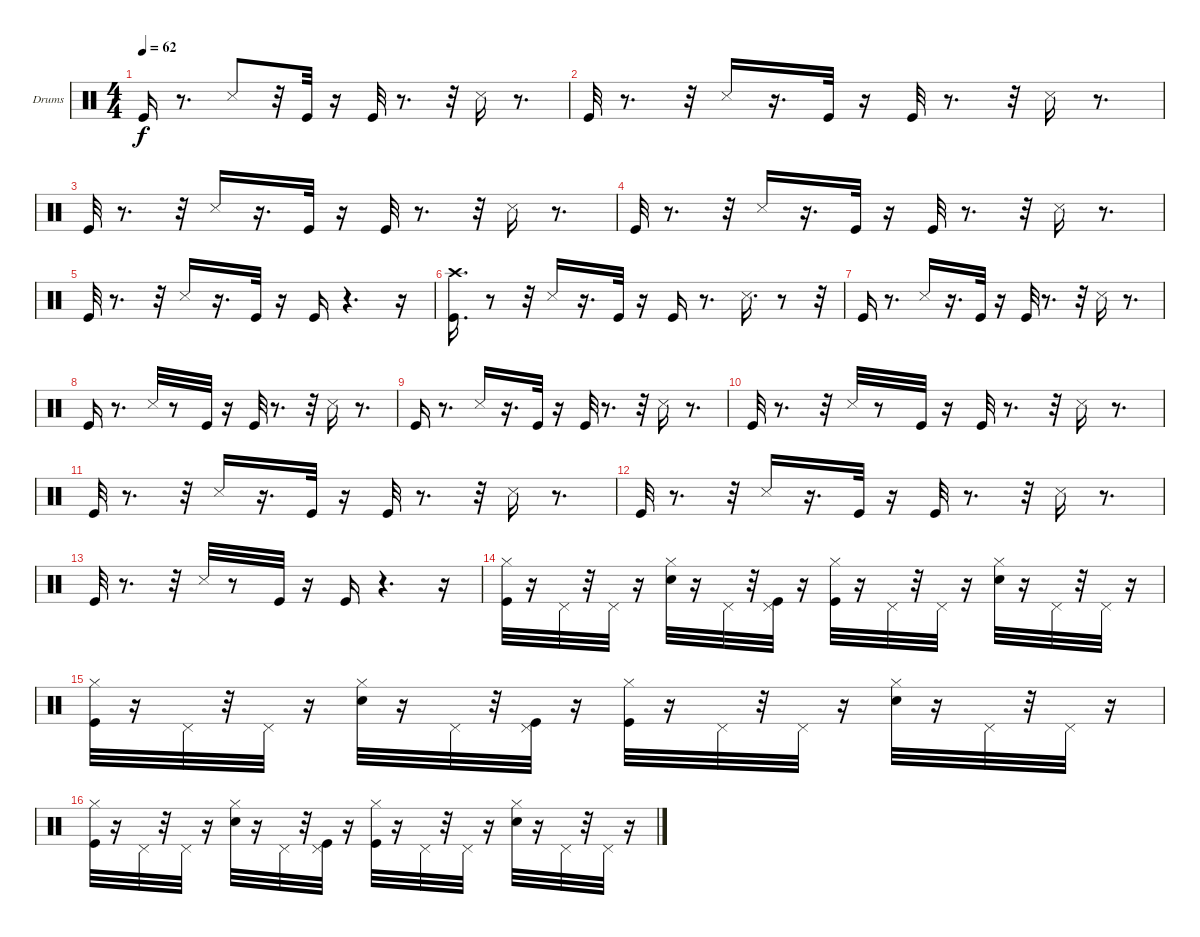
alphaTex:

\bracketExtendMode groupsimilarinstruments
\firstSystemTrackNameOrientation horizontal
\otherSystemsTrackNameOrientation horizontal
\track ("Ударные" "Drums") {instrument percussion}
\staff {score}
\articulation defaults
\ts (4 4)
\tempo 62
\clef neutral
\ks c "Kick (hit)".16{dy f}
r.8{d} "Snare (side stick) 3".8 r.32 "Kick (hit)".32 r.16 "Kick (hit)".32 r.8{d} r.32 "Snare (side stick) 3".16 r.8{d} |
"Kick (hit)".32 r.8{d} r.32 "Snare (side stick) 3".16 r.16{d} "Kick (hit)".32 r.16 "Kick (hit)".32 r.8{d} r.32 "Snare (side stick) 3".16 r.8{d} |
"Kick (hit)".32 r.8{d} r.32 "Snare (side stick) 3".16 r.16{d} "Kick (hit)".32 r.16 "Kick (hit)".32 r.8{d} r.32 "Snare (side stick) 3".16 r.8{d} |
"Kick (hit)".32 r.8{d} r.32 "Snare (side stick) 3".16 r.16{d} "Kick (hit)".32 r.16 "Kick (hit)".32 r.8{d} r.32 "Snare (side stick) 3".16 r.8{d} |
"Kick (hit)".32 r.8{d} r.32 "Snare (side stick) 3".16 r.16{d} "Kick (hit)".32 r.16 "Kick (hit)".16 r.4{d} r.16 |
("Kick (hit)" "Crash high (hit)").16{d} r.8 r.32 "Snare (side stick) 3".16 r.16{d} "Kick (hit)".32 r.16 "Kick (hit)".16 r.8{d} "Snare (side stick) 3".16{d} r.8 r.32 |
"Kick (hit)".16 r.8{d} "Snare (side stick) 3".16 r.16{d} "Kick (hit)".32 r.16 "Kick (hit)".32 r.8{d} r.32 "Snare (side stick) 3".16 r.8{d} |
"Kick (hit)".16 r.8{d} "Snare (side stick) 3".32 r.8 "Kick (hit)".32 r.16 "Kick (hit)".32 r.8{d} r.32 "Snare (side stick) 3".16 r.8{d} |
"Kick (hit)".16 r.8{d} "Snare (side stick) 3".16 r.16{d} "Kick (hit)".32 r.16 "Kick (hit)".32 r.8{d} r.32 "Snare (side stick) 3".16 r.8{d} |
"Kick (hit)".32 r.8{d} r.32 "Snare (side stick) 3".32 r.8 "Kick (hit)".32 r.16 "Kick (hit)".32 r.8{d} r.32 "Snare (side stick) 3".16 r.8{d} |
"Kick (hit)".32 r.8{d} r.32 "Snare (side stick) 3".16 r.16{d} "Kick (hit)".32 r.16 "Kick (hit)".32 r.8{d} r.32 "Snare (side stick) 3".16 r.8{d} |
"Kick (hit)".32 r.8{d} r.32 "Snare (side stick) 3".16 r.16{d} "Kick (hit)".32 r.16 "Kick (hit)".32 r.8{d} r.32 "Snare (side stick) 3".16 r.8{d} |
"Kick (hit)".32 r.8{d} r.32 "Snare (side stick) 3".32 r.8 "Kick (hit)".32 r.16 "Kick (hit)".16 r.4{d} r.16 |
("Kick (hit)" "Hi-Hat (closed)").32 r.16 "Pedal Hi-Hat (hit)".32 r.32 "Pedal Hi-Hat (hit)".32 r.16 ("Snare (hit) 2" "Hi-Hat (closed)").32 r.16 "Pedal Hi-Hat (hit)".32 r.32 ("Kick (hit)" "Pedal Hi-Hat (hit)").32 r.16 ("Kick (hit)" "Hi-Hat (closed)").32 r.16 "Pedal Hi-Hat (hit)".32 r.32 "Pedal Hi-Hat (hit)".32 r.16 ("Snare (hit) 2" "Hi-Hat (closed)").32 r.16 "Pedal Hi-Hat (hit)".32 r.32 "Pedal Hi-Hat (hit)".32 r.16 |
("Kick (hit)" "Hi-Hat (closed)").32 r.16 "Pedal Hi-Hat (hit)".32 r.32 "Pedal Hi-Hat (hit)".32 r.16 ("Snare (hit) 2" "Hi-Hat (closed)").32 r.16 "Pedal Hi-Hat (hit)".32 r.32 ("Kick (hit)" "Pedal Hi-Hat (hit)").32 r.16 ("Kick (hit)" "Hi-Hat (closed)").32 r.16 "Pedal Hi-Hat (hit)".32 r.32 "Pedal Hi-Hat (hit)".32 r.16 ("Snare (hit) 2" "Hi-Hat (closed)").32 r.16 "Pedal Hi-Hat (hit)".32 r.32 "Pedal Hi-Hat (hit)".32 r.16 |
("Kick (hit)" "Hi-Hat (closed)").32 r.16 "Pedal Hi-Hat (hit)".32 r.32 "Pedal Hi-Hat (hit)".32 r.16 ("Snare (hit) 2" "Hi-Hat (closed)").32 r.16 "Pedal Hi-Hat (hit)".32 r.32 ("Kick (hit)" "Pedal Hi-Hat (hit)").32 r.16 ("Kick (hit)" "Hi-Hat (closed)").32 r.16 "Pedal Hi-Hat (hit)".32 r.32 "Pedal Hi-Hat (hit)".32 r.16 ("Snare (hit) 2" "Hi-Hat (closed)").32 r.16 "Pedal Hi-Hat (hit)".32 r.32 "Pedal Hi-Hat (hit)".32 r.16
